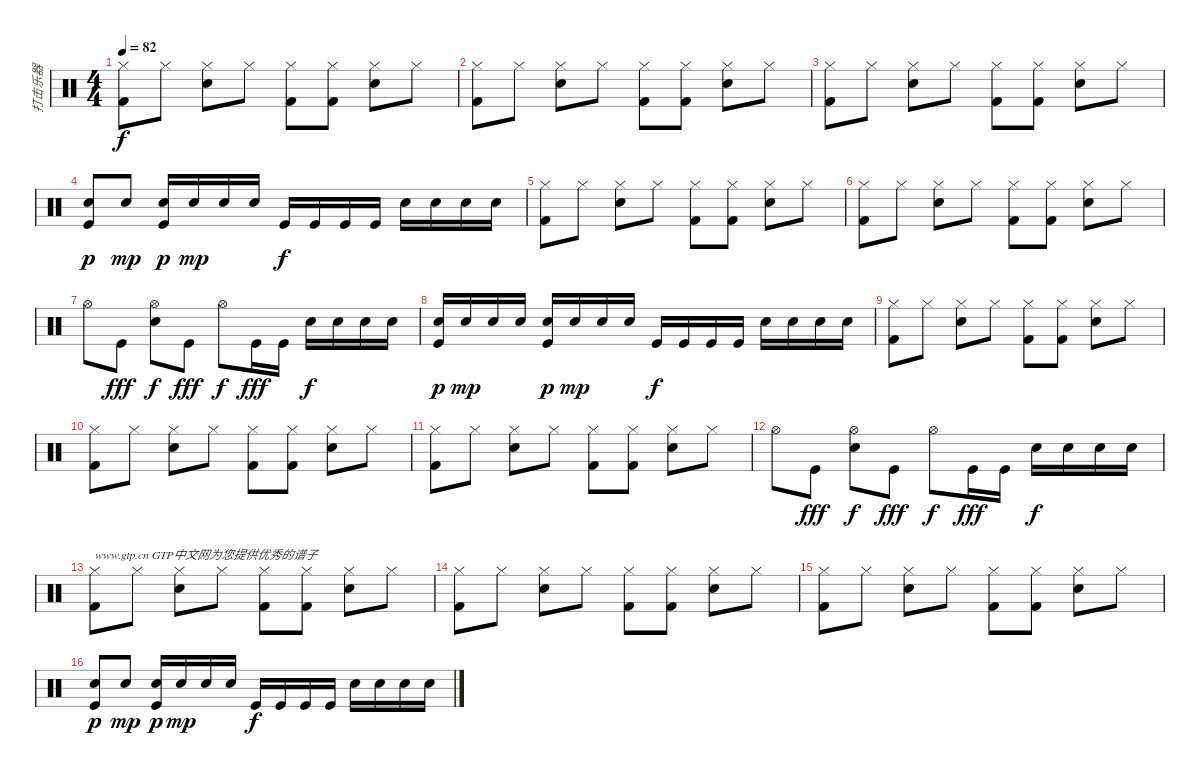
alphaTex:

\track ("打击乐器" "打击乐器") {instrument percussion}
\staff {score}
\articulation defaults
\ts (4 4)
\tempo 82
\clef neutral
\ks c
("Kick (hit) 2" "Hi-Hat (closed)").8{dy f} "Hi-Hat (closed)".8 ("Snare (hit) 2" "Hi-Hat (closed)").8 "Hi-Hat (closed)".8 ("Kick (hit) 2" "Hi-Hat (closed)").8 ("Kick (hit) 2" "Hi-Hat (closed)").8 ("Snare (hit) 2" "Hi-Hat (closed)").8 "Hi-Hat (closed)".8 |
("Kick (hit) 2" "Hi-Hat (closed)").8 "Hi-Hat (closed)".8 ("Snare (hit) 2" "Hi-Hat (closed)").8 "Hi-Hat (closed)".8 ("Kick (hit) 2" "Hi-Hat (closed)").8 ("Kick (hit) 2" "Hi-Hat (closed)").8 ("Snare (hit) 2" "Hi-Hat (closed)").8 "Hi-Hat (closed)".8 |
("Kick (hit) 2" "Hi-Hat (closed)").8 "Hi-Hat (closed)".8 ("Snare (hit) 2" "Hi-Hat (closed)").8 "Hi-Hat (closed)".8 ("Kick (hit) 2" "Hi-Hat (closed)").8 ("Kick (hit) 2" "Hi-Hat (closed)").8 ("Snare (hit) 2" "Hi-Hat (closed)").8 "Hi-Hat (closed)".8 |
("Electric Snare (hit)" "Kick (hit)").8{dy p} "Electric Snare (hit)".8{dy mp} ("Electric Snare (hit)" "Kick (hit)").16{dy p} "Electric Snare (hit)".16{dy mp} "Electric Snare (hit)".16 "Electric Snare (hit)".16 "Kick (hit)".16{dy f} "Kick (hit)".16 "Kick (hit)".16 "Kick (hit)".16 "Electric Snare (hit)".16 "Electric Snare (hit)".16 "Electric Snare (hit)".16 "Electric Snare (hit)".16 |
("Kick (hit) 2" "Hi-Hat (closed)").8 "Hi-Hat (closed)".8 ("Snare (hit) 2" "Hi-Hat (closed)").8 "Hi-Hat (closed)".8 ("Kick (hit) 2" "Hi-Hat (closed)").8 ("Kick (hit) 2" "Hi-Hat (closed)").8 ("Snare (hit) 2" "Hi-Hat (closed)").8 "Hi-Hat (closed)".8 |
("Kick (hit) 2" "Hi-Hat (closed)").8 "Hi-Hat (closed)".8 ("Snare (hit) 2" "Hi-Hat (closed)").8 "Hi-Hat (closed)".8 ("Kick (hit) 2" "Hi-Hat (closed)").8 ("Kick (hit) 2" "Hi-Hat (closed)").8 ("Snare (hit) 2" "Hi-Hat (closed)").8 "Hi-Hat (closed)".8 |
"Hi-Hat (open)".8 "Kick (hit)".8{dy fff} ("Electric Snare (hit)" "Hi-Hat (open)").8{dy f} "Kick (hit)".8{dy fff} "Hi-Hat (open)".8{dy f} "Kick (hit)".16{dy fff} "Kick (hit)".16 "Electric Snare (hit)".16{dy f} "Electric Snare (hit)".16 "Electric Snare (hit)".16 "Electric Snare (hit)".16 |
("Electric Snare (hit)" "Kick (hit)").16{dy p} "Electric Snare (hit)".16{dy mp} "Electric Snare (hit)".16 "Electric Snare (hit)".16 ("Electric Snare (hit)" "Kick (hit)").16{dy p} "Electric Snare (hit)".16{dy mp} "Electric Snare (hit)".16 "Electric Snare (hit)".16 "Kick (hit)".16{dy f} "Kick (hit)".16 "Kick (hit)".16 "Kick (hit)".16 "Electric Snare (hit)".16 "Electric Snare (hit)".16 "Electric Snare (hit)".16 "Electric Snare (hit)".16 |
("Kick (hit) 2" "Hi-Hat (closed)").8 "Hi-Hat (closed)".8 ("Snare (hit) 2" "Hi-Hat (closed)").8 "Hi-Hat (closed)".8 ("Kick (hit) 2" "Hi-Hat (closed)").8 ("Kick (hit) 2" "Hi-Hat (closed)").8 ("Snare (hit) 2" "Hi-Hat (closed)").8 "Hi-Hat (closed)".8 |
("Kick (hit) 2" "Hi-Hat (closed)").8 "Hi-Hat (closed)".8 ("Snare (hit) 2" "Hi-Hat (closed)").8 "Hi-Hat (closed)".8 ("Kick (hit) 2" "Hi-Hat (closed)").8 ("Kick (hit) 2" "Hi-Hat (closed)").8 ("Snare (hit) 2" "Hi-Hat (closed)").8 "Hi-Hat (closed)".8 |
("Kick (hit) 2" "Hi-Hat (closed)").8 "Hi-Hat (closed)".8 ("Snare (hit) 2" "Hi-Hat (closed)").8 "Hi-Hat (closed)".8 ("Kick (hit) 2" "Hi-Hat (closed)").8 ("Kick (hit) 2" "Hi-Hat (closed)").8 ("Snare (hit) 2" "Hi-Hat (closed)").8 "Hi-Hat (closed)".8 |
"Hi-Hat (open)".8 "Kick (hit)".8{dy fff} ("Electric Snare (hit)" "Hi-Hat (open)").8{dy f} "Kick (hit)".8{dy fff} "Hi-Hat (open)".8{dy f} "Kick (hit)".16{dy fff} "Kick (hit)".16 "Electric Snare (hit)".16{dy f} "Electric Snare (hit)".16 "Electric Snare (hit)".16 "Electric Snare (hit)".16 |
("Kick (hit) 2" "Hi-Hat (closed)").8{txt "www.gtp.cn GTP中文网为您提供优秀的谱子"} "Hi-Hat (closed)".8 ("Snare (hit) 2" "Hi-Hat (closed)").8 "Hi-Hat (closed)".8 ("Kick (hit) 2" "Hi-Hat (closed)").8 ("Kick (hit) 2" "Hi-Hat (closed)").8 ("Snare (hit) 2" "Hi-Hat (closed)").8 "Hi-Hat (closed)".8 |
("Kick (hit) 2" "Hi-Hat (closed)").8 "Hi-Hat (closed)".8 ("Snare (hit) 2" "Hi-Hat (closed)").8 "Hi-Hat (closed)".8 ("Kick (hit) 2" "Hi-Hat (closed)").8 ("Kick (hit) 2" "Hi-Hat (closed)").8 ("Snare (hit) 2" "Hi-Hat (closed)").8 "Hi-Hat (closed)".8 |
("Kick (hit) 2" "Hi-Hat (closed)").8 "Hi-Hat (closed)".8 ("Snare (hit) 2" "Hi-Hat (closed)").8 "Hi-Hat (closed)".8 ("Kick (hit) 2" "Hi-Hat (closed)").8 ("Kick (hit) 2" "Hi-Hat (closed)").8 ("Snare (hit) 2" "Hi-Hat (closed)").8 "Hi-Hat (closed)".8 |
("Electric Snare (hit)" "Kick (hit)").8{dy p} "Electric Snare (hit)".8{dy mp} ("Electric Snare (hit)" "Kick (hit)").16{dy p} "Electric Snare (hit)".16{dy mp} "Electric Snare (hit)".16 "Electric Snare (hit)".16 "Kick (hit)".16{dy f} "Kick (hit)".16 "Kick (hit)".16 "Kick (hit)".16 "Electric Snare (hit)".16 "Electric Snare (hit)".16 "Electric Snare (hit)".16 "Electric Snare (hit)".16
